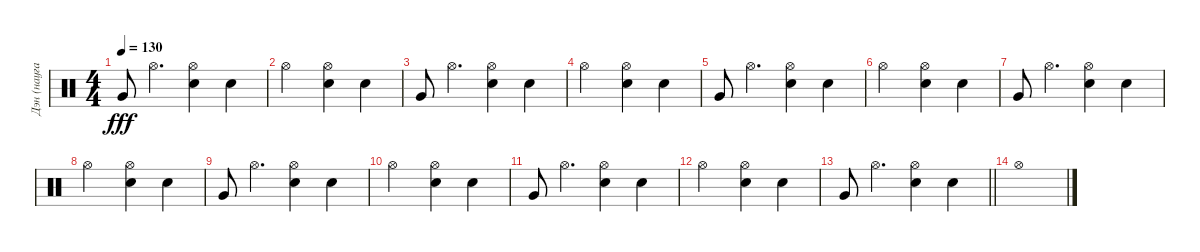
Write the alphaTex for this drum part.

\track ("Дэн (наугад))" "Дэн (науга") {instrument percussion}
\staff {score}
\articulation defaults
\ts (4 4)
\tempo 130
\clef neutral
\ks c "Very Low Tom (hit)".8{dy fff} "Hi-Hat (open)".4{d}
("Hi-Hat (open)" "Snare (hit) 2").4 "Snare (hit) 2".4 |
"Hi-Hat (open)".2 ("Hi-Hat (open)" "Snare (hit) 2").4 "Snare (hit) 2".4 |
"Very Low Tom (hit)".8 "Hi-Hat (open)".4{d} ("Hi-Hat (open)" "Snare (hit) 2").4 "Snare (hit) 2".4 |
"Hi-Hat (open)".2 ("Hi-Hat (open)" "Snare (hit) 2").4 "Snare (hit) 2".4 |
"Very Low Tom (hit)".8 "Hi-Hat (open)".4{d} ("Hi-Hat (open)" "Snare (hit) 2").4 "Snare (hit) 2".4 |
"Hi-Hat (open)".2 ("Hi-Hat (open)" "Snare (hit) 2").4 "Snare (hit) 2".4 |
"Very Low Tom (hit)".8 "Hi-Hat (open)".4{d} ("Hi-Hat (open)" "Snare (hit) 2").4 "Snare (hit) 2".4 |
"Hi-Hat (open)".2 ("Hi-Hat (open)" "Snare (hit) 2").4 "Snare (hit) 2".4 |
"Very Low Tom (hit)".8 "Hi-Hat (open)".4{d} ("Hi-Hat (open)" "Snare (hit) 2").4 "Snare (hit) 2".4 |
"Hi-Hat (open)".2 ("Hi-Hat (open)" "Snare (hit) 2").4 "Snare (hit) 2".4 |
"Very Low Tom (hit)".8 "Hi-Hat (open)".4{d} ("Hi-Hat (open)" "Snare (hit) 2").4 "Snare (hit) 2".4 |
"Hi-Hat (open)".2 ("Hi-Hat (open)" "Snare (hit) 2").4 "Snare (hit) 2".4 |
\barLineRight lightlight "Very Low Tom (hit)".8 "Hi-Hat (open)".4{d}
("Hi-Hat (open)" "Snare (hit) 2").4 "Snare (hit) 2".4 |
"Hi-Hat (open)".1
